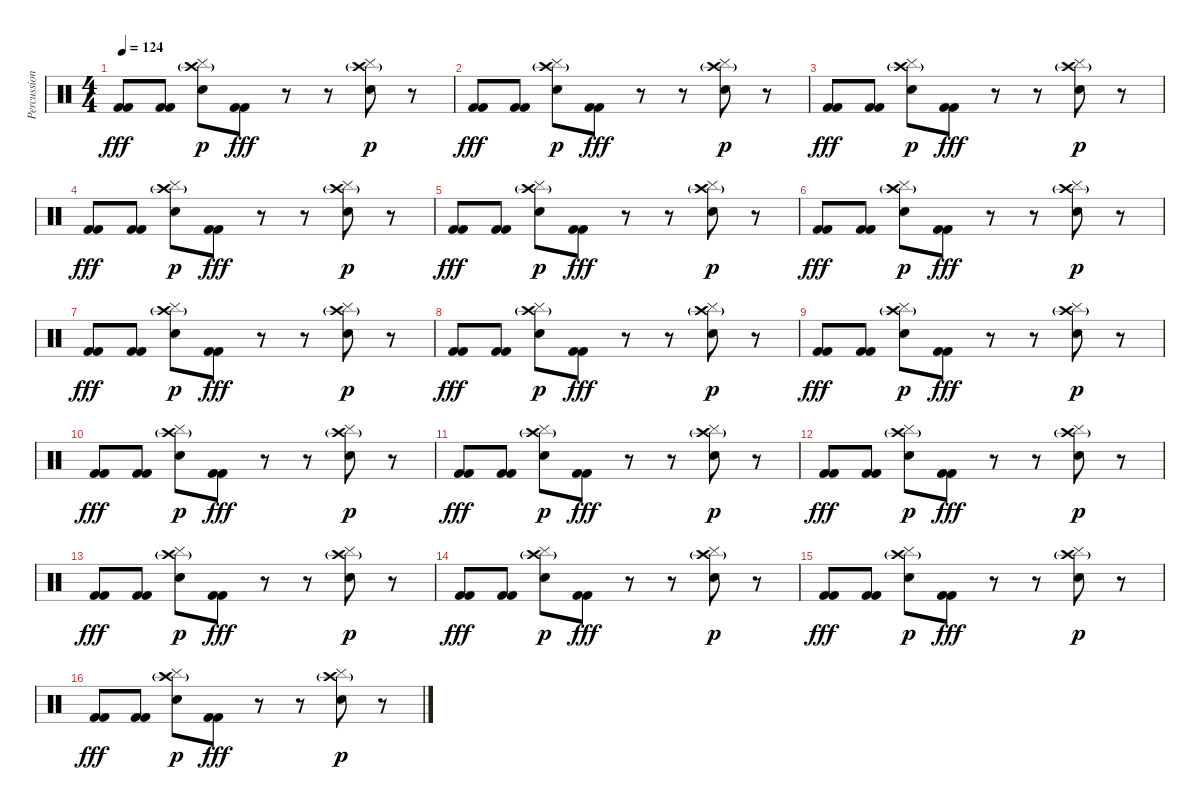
\track ("Percussions" "Percussion") {instrument percussion}
\staff {score}
\articulation defaults
\ts (4 4)
\tempo 124
\clef neutral
\ks c
("Kick (hit) 2" "Kick (hit) 2").8{dy fff} ("Kick (hit) 2" "Kick (hit) 2").8 ("Crash high (hit)"{g} "Hand Clap (hit)" "Cymbal (hit)").8{dy p} ("Kick (hit) 2" "Kick (hit) 2").8{dy fff} r.8 r.8 ("Crash high (hit)"{g} "Hand Clap (hit)" "Cymbal (hit)").8{dy p} r.8 |
("Kick (hit) 2" "Kick (hit) 2").8{dy fff} ("Kick (hit) 2" "Kick (hit) 2").8 ("Crash high (hit)"{g} "Hand Clap (hit)" "Cymbal (hit)").8{dy p} ("Kick (hit) 2" "Kick (hit) 2").8{dy fff} r.8 r.8 ("Crash high (hit)"{g} "Hand Clap (hit)" "Cymbal (hit)").8{dy p} r.8 |
("Kick (hit) 2" "Kick (hit) 2").8{dy fff} ("Kick (hit) 2" "Kick (hit) 2").8 ("Crash high (hit)"{g} "Hand Clap (hit)" "Cymbal (hit)").8{dy p} ("Kick (hit) 2" "Kick (hit) 2").8{dy fff} r.8 r.8 ("Crash high (hit)"{g} "Hand Clap (hit)" "Cymbal (hit)").8{dy p} r.8 |
("Kick (hit) 2" "Kick (hit) 2").8{dy fff} ("Kick (hit) 2" "Kick (hit) 2").8 ("Crash high (hit)"{g} "Hand Clap (hit)" "Cymbal (hit)").8{dy p} ("Kick (hit) 2" "Kick (hit) 2").8{dy fff} r.8 r.8 ("Crash high (hit)"{g} "Hand Clap (hit)" "Cymbal (hit)").8{dy p} r.8 |
("Kick (hit) 2" "Kick (hit) 2").8{dy fff} ("Kick (hit) 2" "Kick (hit) 2").8 ("Crash high (hit)"{g} "Hand Clap (hit)" "Cymbal (hit)").8{dy p} ("Kick (hit) 2" "Kick (hit) 2").8{dy fff} r.8 r.8 ("Crash high (hit)"{g} "Hand Clap (hit)" "Cymbal (hit)").8{dy p} r.8 |
("Kick (hit) 2" "Kick (hit) 2").8{dy fff} ("Kick (hit) 2" "Kick (hit) 2").8 ("Crash high (hit)"{g} "Hand Clap (hit)" "Cymbal (hit)").8{dy p} ("Kick (hit) 2" "Kick (hit) 2").8{dy fff} r.8 r.8 ("Crash high (hit)"{g} "Hand Clap (hit)" "Cymbal (hit)").8{dy p} r.8 |
("Kick (hit) 2" "Kick (hit) 2").8{dy fff} ("Kick (hit) 2" "Kick (hit) 2").8 ("Crash high (hit)"{g} "Hand Clap (hit)" "Cymbal (hit)").8{dy p} ("Kick (hit) 2" "Kick (hit) 2").8{dy fff} r.8 r.8 ("Crash high (hit)"{g} "Hand Clap (hit)" "Cymbal (hit)").8{dy p} r.8 |
("Kick (hit) 2" "Kick (hit) 2").8{dy fff} ("Kick (hit) 2" "Kick (hit) 2").8 ("Crash high (hit)"{g} "Hand Clap (hit)" "Cymbal (hit)").8{dy p} ("Kick (hit) 2" "Kick (hit) 2").8{dy fff} r.8 r.8 ("Crash high (hit)"{g} "Hand Clap (hit)" "Cymbal (hit)").8{dy p} r.8 |
("Kick (hit) 2" "Kick (hit) 2").8{dy fff} ("Kick (hit) 2" "Kick (hit) 2").8 ("Crash high (hit)"{g} "Hand Clap (hit)" "Cymbal (hit)").8{dy p} ("Kick (hit) 2" "Kick (hit) 2").8{dy fff} r.8 r.8 ("Crash high (hit)"{g} "Hand Clap (hit)" "Cymbal (hit)").8{dy p} r.8 |
("Kick (hit) 2" "Kick (hit) 2").8{dy fff} ("Kick (hit) 2" "Kick (hit) 2").8 ("Crash high (hit)"{g} "Hand Clap (hit)" "Cymbal (hit)").8{dy p} ("Kick (hit) 2" "Kick (hit) 2").8{dy fff} r.8 r.8 ("Crash high (hit)"{g} "Hand Clap (hit)" "Cymbal (hit)").8{dy p} r.8 |
("Kick (hit) 2" "Kick (hit) 2").8{dy fff} ("Kick (hit) 2" "Kick (hit) 2").8 ("Crash high (hit)"{g} "Hand Clap (hit)" "Cymbal (hit)").8{dy p} ("Kick (hit) 2" "Kick (hit) 2").8{dy fff} r.8 r.8 ("Crash high (hit)"{g} "Hand Clap (hit)" "Cymbal (hit)").8{dy p} r.8 |
("Kick (hit) 2" "Kick (hit) 2").8{dy fff} ("Kick (hit) 2" "Kick (hit) 2").8 ("Crash high (hit)"{g} "Hand Clap (hit)" "Cymbal (hit)").8{dy p} ("Kick (hit) 2" "Kick (hit) 2").8{dy fff} r.8 r.8 ("Crash high (hit)"{g} "Hand Clap (hit)" "Cymbal (hit)").8{dy p} r.8 |
("Kick (hit) 2" "Kick (hit) 2").8{dy fff} ("Kick (hit) 2" "Kick (hit) 2").8 ("Crash high (hit)"{g} "Hand Clap (hit)" "Cymbal (hit)").8{dy p} ("Kick (hit) 2" "Kick (hit) 2").8{dy fff} r.8 r.8 ("Crash high (hit)"{g} "Hand Clap (hit)" "Cymbal (hit)").8{dy p} r.8 |
("Kick (hit) 2" "Kick (hit) 2").8{dy fff} ("Kick (hit) 2" "Kick (hit) 2").8 ("Crash high (hit)"{g} "Hand Clap (hit)" "Cymbal (hit)").8{dy p} ("Kick (hit) 2" "Kick (hit) 2").8{dy fff} r.8 r.8 ("Crash high (hit)"{g} "Hand Clap (hit)" "Cymbal (hit)").8{dy p} r.8 |
("Kick (hit) 2" "Kick (hit) 2").8{dy fff} ("Kick (hit) 2" "Kick (hit) 2").8 ("Crash high (hit)"{g} "Hand Clap (hit)" "Cymbal (hit)").8{dy p} ("Kick (hit) 2" "Kick (hit) 2").8{dy fff} r.8 r.8 ("Crash high (hit)"{g} "Hand Clap (hit)" "Cymbal (hit)").8{dy p} r.8 |
("Kick (hit) 2" "Kick (hit) 2").8{dy fff} ("Kick (hit) 2" "Kick (hit) 2").8 ("Crash high (hit)"{g} "Hand Clap (hit)" "Cymbal (hit)").8{dy p} ("Kick (hit) 2" "Kick (hit) 2").8{dy fff} r.8 r.8 ("Crash high (hit)"{g} "Hand Clap (hit)" "Cymbal (hit)").8{dy p} r.8
